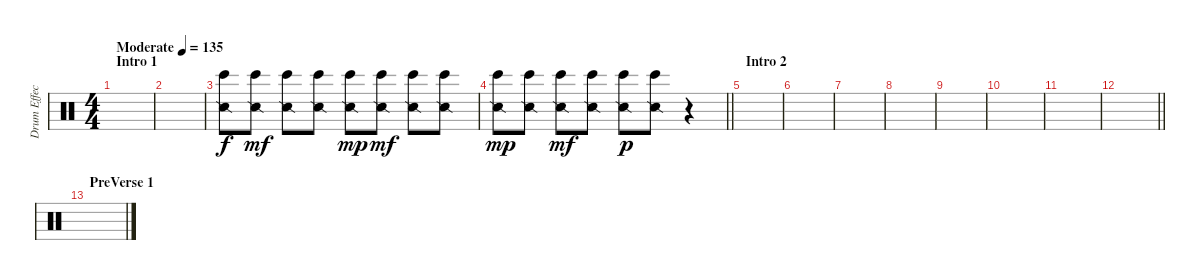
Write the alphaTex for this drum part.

\track ("Drum Effects" "Drum Effec") {instrument percussion}
\staff {score}
\articulation defaults
\ts (4 4)
\section ("" "Intro 1")
\tempo (135 "Moderate")
\clef neutral
\ks c
|
|
("Snare (side stick) 2" "Bongo High (hit)").8 ("Snare (side stick) 2" "Bongo High (hit)").8{dy mf} ("Snare (side stick) 2" "Bongo High (hit)").8 ("Snare (side stick) 2" "Bongo High (hit)").8 ("Snare (side stick) 2" "Bongo High (hit)").8{dy mp} ("Snare (side stick) 2" "Bongo High (hit)").8{dy mf} ("Snare (side stick) 2" "Bongo High (hit)").8 ("Snare (side stick) 2" "Bongo High (hit)").8 |
\barLineRight lightlight
("Snare (side stick) 2" "Bongo High (hit)").8{dy mp} ("Snare (side stick) 2" "Bongo High (hit)").8 ("Snare (side stick) 2" "Bongo High (hit)").8{dy mf} ("Snare (side stick) 2" "Bongo High (hit)").8 ("Snare (side stick) 2" "Bongo High (hit)").8{dy p} ("Snare (side stick) 2" "Bongo High (hit)").8 r.4 |
\section ("" "Intro 2")
|
|
|
|
|
|
|
\barLineRight lightlight
|
\section ("" "PreVerse 1")
